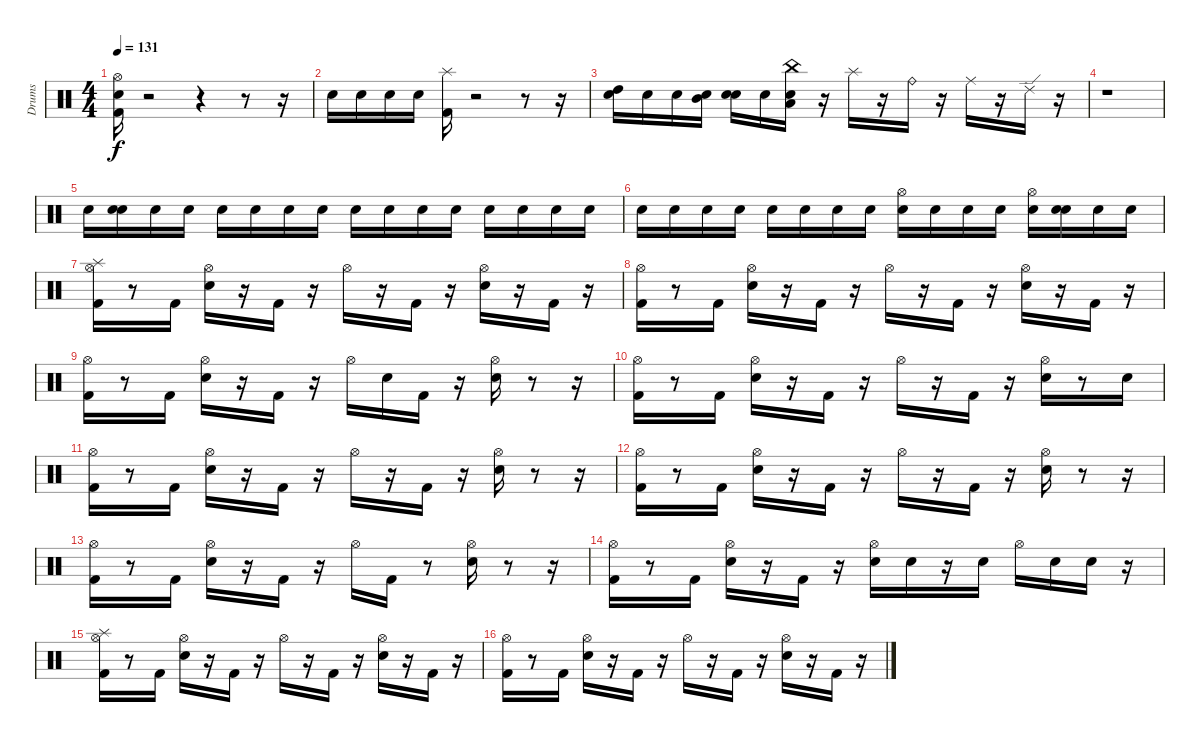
\track ("Drums" "Drums") {instrument percussion}
\staff {score}
\articulation defaults
\ts (4 4)
\tempo 131
\clef neutral
\ks c
("Hi-Hat (open)" "Kick (hit) 2" "Snare (hit) 2").16{dy f} r.2 r.4 r.8 r.16 |
"Snare (hit) 2".16 "Snare (hit) 2".16 "Snare (hit) 2".16 "Snare (hit) 2".16 ("Splash (hit)" "Kick (hit) 2").16 r.2 r.8 r.16 |
("High Tom (hit)" "Snare (hit) 2").16 "Snare (hit) 2".16 "Snare (hit) 2".16 ("Mid Tom (hit)" "Snare (hit) 2").16 ("Snare (hit)" "Snare (hit) 2").16 "Snare (hit) 2".16 ("Low Tom (hit)" "China (hit)" "Snare (hit) 2").16 r.16 "Splash (hit)".16 r.16 "Ride (bell)".16 r.16 "Ride (middle)".16 r.16 "Ride (edge) 2".16 r.16 |
r.1 |
"Snare (hit) 2".16 ("Snare (hit)" "Snare (hit) 2").16 "Snare (hit) 2".16 "Snare (hit) 2".16 "Snare (hit) 2".16 "Snare (hit) 2".16 "Snare (hit) 2".16 "Snare (hit) 2".16 "Snare (hit) 2".16 "Snare (hit) 2".16 "Snare (hit) 2".16 "Snare (hit) 2".16 "Snare (hit) 2".16 "Snare (hit) 2".16 "Snare (hit) 2".16 "Snare (hit) 2".16 |
"Snare (hit) 2".16 "Snare (hit) 2".16 "Snare (hit) 2".16 "Snare (hit) 2".16 "Snare (hit) 2".16 "Snare (hit) 2".16 "Snare (hit) 2".16 "Snare (hit) 2".16 ("Snare (hit) 2" "Hi-Hat (open)").16 "Snare (hit) 2".16 "Snare (hit) 2".16 "Snare (hit) 2".16 ("Hi-Hat (open)" "Snare (hit) 2").16 ("Snare (hit)" "Snare (hit) 2").16 "Snare (hit) 2".16 "Snare (hit) 2".16 |
("Splash (hit)" "Hi-Hat (open)" "Kick (hit) 2").16 r.8 "Kick (hit) 2".16 ("Hi-Hat (open)" "Snare (hit) 2").16 r.16 "Kick (hit) 2".16 r.16 "Hi-Hat (open)".16 r.16 "Kick (hit) 2".16 r.16 ("Hi-Hat (open)" "Snare (hit) 2").16 r.16 "Kick (hit) 2".16 r.16 |
("Hi-Hat (open)" "Kick (hit) 2").16 r.8 "Kick (hit) 2".16 ("Hi-Hat (open)" "Snare (hit) 2").16 r.16 "Kick (hit) 2".16 r.16 "Hi-Hat (open)".16 r.16 "Kick (hit) 2".16 r.16 ("Hi-Hat (open)" "Snare (hit) 2").16 r.16 "Kick (hit) 2".16 r.16 |
("Hi-Hat (open)" "Kick (hit) 2").16 r.8 "Kick (hit) 2".16 ("Hi-Hat (open)" "Snare (hit) 2").16 r.16 "Kick (hit) 2".16 r.16 "Hi-Hat (open)".16 "Snare (hit) 2".16 "Kick (hit) 2".16 r.16 ("Hi-Hat (open)" "Snare (hit) 2").16 r.8 r.16 |
("Hi-Hat (open)" "Kick (hit) 2").16 r.8 "Kick (hit) 2".16 ("Hi-Hat (open)" "Snare (hit) 2").16 r.16 "Kick (hit) 2".16 r.16 "Hi-Hat (open)".16 r.16 "Kick (hit) 2".16 r.16 ("Hi-Hat (open)" "Snare (hit) 2").16 r.8 "Snare (hit) 2".16 |
("Hi-Hat (open)" "Kick (hit) 2").16 r.8 "Kick (hit) 2".16 ("Hi-Hat (open)" "Snare (hit) 2").16 r.16 "Kick (hit) 2".16 r.16 "Hi-Hat (open)".16 r.16 "Kick (hit) 2".16 r.16 ("Hi-Hat (open)" "Snare (hit) 2").16 r.8 r.16 |
("Hi-Hat (open)" "Kick (hit) 2").16 r.8 "Kick (hit) 2".16 ("Hi-Hat (open)" "Snare (hit) 2").16 r.16 "Kick (hit) 2".16 r.16 "Hi-Hat (open)".16 r.16 "Kick (hit) 2".16 r.16 ("Hi-Hat (open)" "Snare (hit) 2").16 r.8 r.16 |
("Hi-Hat (open)" "Kick (hit) 2").16 r.8 "Kick (hit) 2".16 ("Hi-Hat (open)" "Snare (hit) 2").16 r.16 "Kick (hit) 2".16 r.16 "Hi-Hat (open)".16 "Kick (hit) 2".16 r.8 ("Hi-Hat (open)" "Snare (hit) 2").16 r.8 r.16 |
("Hi-Hat (open)" "Kick (hit) 2").16 r.8 "Kick (hit) 2".16 ("Hi-Hat (open)" "Snare (hit) 2").16 r.16 "Kick (hit) 2".16 r.16 ("Hi-Hat (open)" "Snare (hit) 2").16 "Snare (hit) 2".16 r.16 "Snare (hit) 2".16 "Hi-Hat (open)".16 "Snare (hit) 2".16 "Snare (hit) 2".16 r.16 |
("Splash (hit)" "Hi-Hat (open)" "Kick (hit) 2").16 r.8 "Kick (hit) 2".16 ("Hi-Hat (open)" "Snare (hit) 2").16 r.16 "Kick (hit) 2".16 r.16 "Hi-Hat (open)".16 r.16 "Kick (hit) 2".16 r.16 ("Hi-Hat (open)" "Snare (hit) 2").16 r.16 "Kick (hit) 2".16 r.16 |
("Hi-Hat (open)" "Kick (hit) 2").16 r.8 "Kick (hit) 2".16 ("Hi-Hat (open)" "Snare (hit) 2").16 r.16 "Kick (hit) 2".16 r.16 "Hi-Hat (open)".16 r.16 "Kick (hit) 2".16 r.16 ("Hi-Hat (open)" "Snare (hit) 2").16 r.16 "Kick (hit) 2".16 r.16
